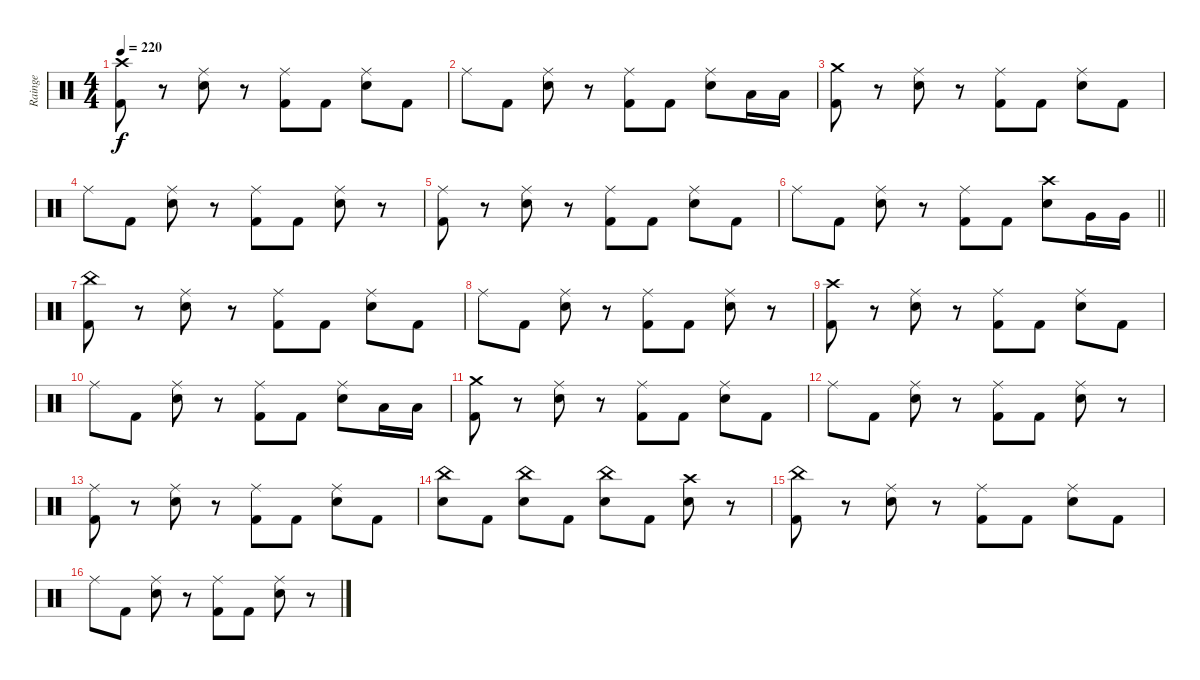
\track ("Rainge" "Rainge") {instrument percussion}
\staff {score}
\articulation defaults
\ts (4 4)
\tempo 220
\clef neutral
\ks c
("Crash high (hit)" "Kick (hit) 2").8{dy f} r.8 ("Ride (middle)" "Electric Snare (hit)").8 r.8 ("Ride (middle)" "Kick (hit) 2").8 "Kick (hit) 2".8 ("Ride (middle)" "Electric Snare (hit)").8 "Kick (hit) 2".8 |
"Ride (middle)".8 "Kick (hit) 2".8 ("Ride (middle)" "Electric Snare (hit)").8 r.8 ("Ride (middle)" "Kick (hit) 2").8 "Kick (hit) 2".8 ("Ride (middle)" "Electric Snare (hit)").8 "Low Tom (hit)".16 "Low Tom (hit)".16 |
("Crash medium (hit)" "Kick (hit) 2").8 r.8 ("Ride (middle)" "Electric Snare (hit)").8 r.8 ("Ride (middle)" "Kick (hit) 2").8 "Kick (hit) 2".8 ("Ride (middle)" "Electric Snare (hit)").8 "Kick (hit) 2".8 |
"Ride (middle)".8 "Kick (hit) 2".8 ("Ride (middle)" "Electric Snare (hit)").8 r.8 ("Ride (middle)" "Kick (hit) 2").8 "Kick (hit) 2".8 ("Ride (middle)" "Electric Snare (hit)").8 r.8 |
("Ride (middle)" "Kick (hit) 2").8 r.8 ("Ride (middle)" "Electric Snare (hit)").8 r.8 ("Ride (middle)" "Kick (hit) 2").8 "Kick (hit) 2".8 ("Ride (middle)" "Electric Snare (hit)").8 "Kick (hit) 2".8 |
\barLineRight lightlight "Ride (middle)".8 "Kick (hit) 2".8
("Ride (middle)" "Electric Snare (hit)").8 r.8 ("Ride (middle)" "Kick (hit) 2").8 "Kick (hit) 2".8 ("Crash high (hit)" "Electric Snare (hit)").8 "Very Low Tom (hit)".16 "Very Low Tom (hit)".16 |
("China (hit)" "Kick (hit) 2").8 r.8 ("Ride (middle)" "Electric Snare (hit)").8 r.8 ("Ride (middle)" "Kick (hit) 2").8 "Kick (hit) 2".8 ("Ride (middle)" "Electric Snare (hit)").8 "Kick (hit) 2".8 |
"Ride (middle)".8 "Kick (hit) 2".8 ("Ride (middle)" "Electric Snare (hit)").8 r.8 ("Ride (middle)" "Kick (hit) 2").8 "Kick (hit) 2".8 ("Ride (middle)" "Electric Snare (hit)").8 r.8 |
("Crash high (hit)" "Kick (hit) 2").8 r.8 ("Ride (middle)" "Electric Snare (hit)").8 r.8 ("Ride (middle)" "Kick (hit) 2").8 "Kick (hit) 2".8 ("Ride (middle)" "Electric Snare (hit)").8 "Kick (hit) 2".8 |
"Ride (middle)".8 "Kick (hit) 2".8 ("Ride (middle)" "Electric Snare (hit)").8 r.8 ("Ride (middle)" "Kick (hit) 2").8 "Kick (hit) 2".8 ("Ride (middle)" "Electric Snare (hit)").8 "Low Tom (hit)".16 "Low Tom (hit)".16 |
("Crash medium (hit)" "Kick (hit) 2").8 r.8 ("Ride (middle)" "Electric Snare (hit)").8 r.8 ("Ride (middle)" "Kick (hit) 2").8 "Kick (hit) 2".8 ("Ride (middle)" "Electric Snare (hit)").8 "Kick (hit) 2".8 |
"Ride (middle)".8 "Kick (hit) 2".8 ("Ride (middle)" "Electric Snare (hit)").8 r.8 ("Ride (middle)" "Kick (hit) 2").8 "Kick (hit) 2".8 ("Ride (middle)" "Electric Snare (hit)").8 r.8 |
("Ride (middle)" "Kick (hit) 2").8 r.8 ("Ride (middle)" "Electric Snare (hit)").8 r.8 ("Ride (middle)" "Kick (hit) 2").8 "Kick (hit) 2".8 ("Ride (middle)" "Electric Snare (hit)").8 "Kick (hit) 2".8 |
("China (hit)" "Electric Snare (hit)").8 "Kick (hit) 2".8 ("China (hit)" "Electric Snare (hit)").8 "Kick (hit) 2".8 ("China (hit)" "Electric Snare (hit)").8 "Kick (hit) 2".8 ("Crash high (hit)" "Electric Snare (hit)").8 r.8 |
("China (hit)" "Kick (hit) 2").8 r.8 ("Ride (middle)" "Electric Snare (hit)").8 r.8 ("Ride (middle)" "Kick (hit) 2").8 "Kick (hit) 2".8 ("Ride (middle)" "Electric Snare (hit)").8 "Kick (hit) 2".8 |
"Ride (middle)".8 "Kick (hit) 2".8 ("Ride (middle)" "Electric Snare (hit)").8 r.8 ("Ride (middle)" "Kick (hit) 2").8 "Kick (hit) 2".8 ("Ride (middle)" "Electric Snare (hit)").8 r.8
